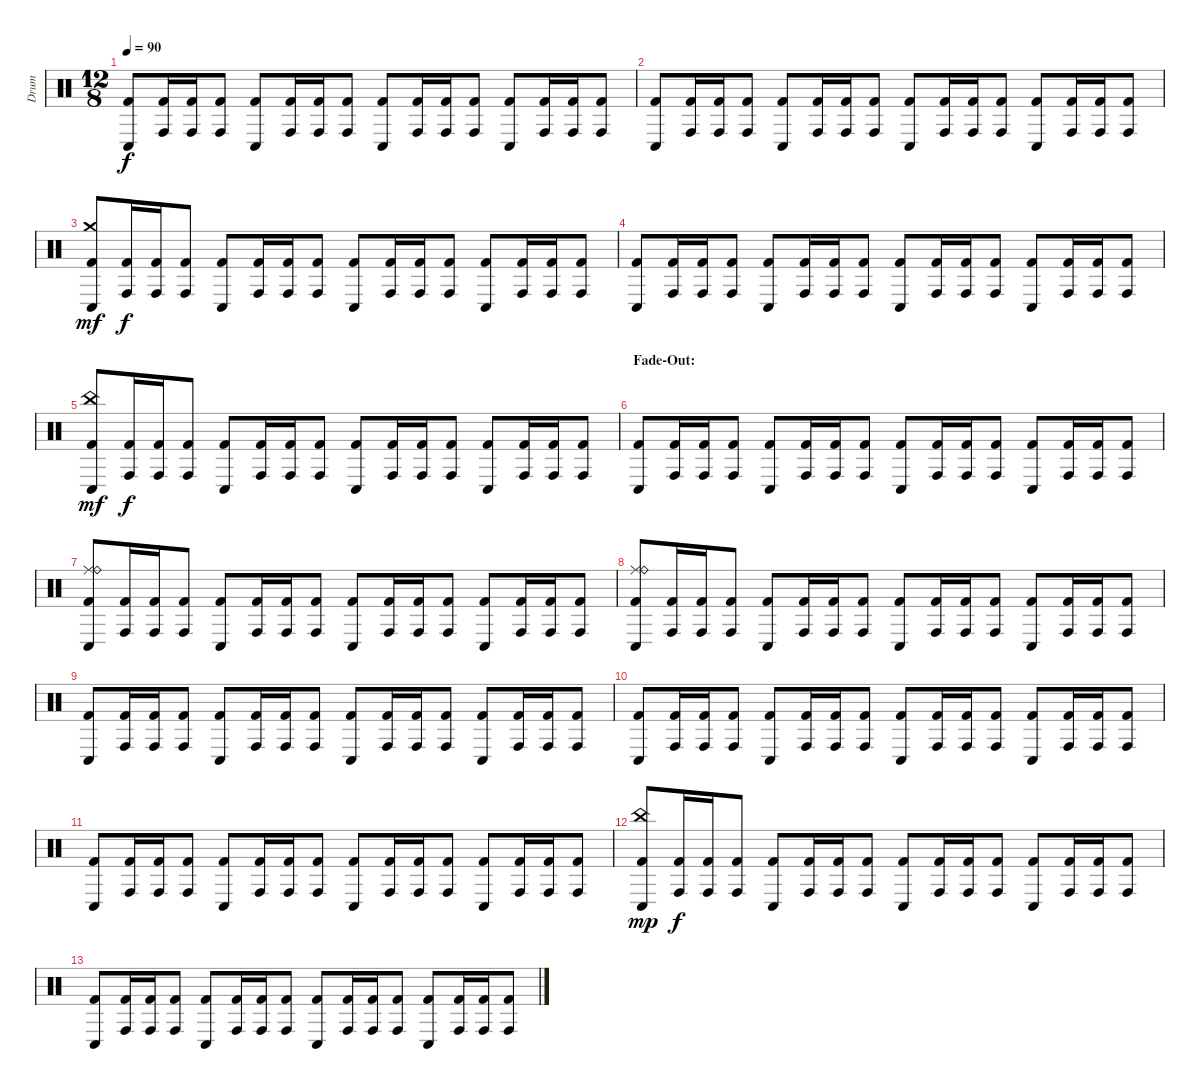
\track ("Drum" "Drum") {instrument percussion}
\staff {score}
\articulation defaults
\ts (12 8)
\tempo 90
\clef neutral
\ks c
("Kick (hit) 2" "Conga low (hit)").8{dy f} ("Kick (hit) 2" "Conga high (hit)").16 ("Kick (hit) 2" "Conga high (hit)").16 ("Kick (hit) 2" "Conga high (hit)").8 ("Kick (hit) 2" "Conga low (hit)").8 ("Kick (hit) 2" "Conga high (hit)").16 ("Kick (hit) 2" "Conga high (hit)").16 ("Kick (hit) 2" "Conga high (hit)").8 ("Kick (hit) 2" "Conga low (hit)").8 ("Kick (hit) 2" "Conga high (hit)").16 ("Kick (hit) 2" "Conga high (hit)").16 ("Kick (hit) 2" "Conga high (hit)").8 ("Kick (hit) 2" "Conga low (hit)").8 ("Kick (hit) 2" "Conga high (hit)").16 ("Kick (hit) 2" "Conga high (hit)").16 ("Kick (hit) 2" "Conga high (hit)").8 |
("Kick (hit) 2" "Conga low (hit)").8 ("Kick (hit) 2" "Conga high (hit)").16 ("Kick (hit) 2" "Conga high (hit)").16 ("Kick (hit) 2" "Conga high (hit)").8 ("Kick (hit) 2" "Conga low (hit)").8 ("Kick (hit) 2" "Conga high (hit)").16 ("Kick (hit) 2" "Conga high (hit)").16 ("Kick (hit) 2" "Conga high (hit)").8 ("Kick (hit) 2" "Conga low (hit)").8 ("Kick (hit) 2" "Conga high (hit)").16 ("Kick (hit) 2" "Conga high (hit)").16 ("Kick (hit) 2" "Conga high (hit)").8 ("Kick (hit) 2" "Conga low (hit)").8 ("Kick (hit) 2" "Conga high (hit)").16 ("Kick (hit) 2" "Conga high (hit)").16 ("Kick (hit) 2" "Conga high (hit)").8 |
("Kick (hit) 2" "Conga low (hit)" "Crash medium (hit)").8{dy mf} ("Kick (hit) 2" "Conga high (hit)").16{dy f} ("Kick (hit) 2" "Conga high (hit)").16 ("Kick (hit) 2" "Conga high (hit)").8 ("Kick (hit) 2" "Conga low (hit)").8 ("Kick (hit) 2" "Conga high (hit)").16 ("Kick (hit) 2" "Conga high (hit)").16 ("Kick (hit) 2" "Conga high (hit)").8 ("Kick (hit) 2" "Conga low (hit)").8 ("Kick (hit) 2" "Conga high (hit)").16 ("Kick (hit) 2" "Conga high (hit)").16 ("Kick (hit) 2" "Conga high (hit)").8 ("Kick (hit) 2" "Conga low (hit)").8 ("Kick (hit) 2" "Conga high (hit)").16 ("Kick (hit) 2" "Conga high (hit)").16 ("Kick (hit) 2" "Conga high (hit)").8 |
("Kick (hit) 2" "Conga low (hit)").8 ("Kick (hit) 2" "Conga high (hit)").16 ("Kick (hit) 2" "Conga high (hit)").16 ("Kick (hit) 2" "Conga high (hit)").8 ("Kick (hit) 2" "Conga low (hit)").8 ("Kick (hit) 2" "Conga high (hit)").16 ("Kick (hit) 2" "Conga high (hit)").16 ("Kick (hit) 2" "Conga high (hit)").8 ("Kick (hit) 2" "Conga low (hit)").8 ("Kick (hit) 2" "Conga high (hit)").16 ("Kick (hit) 2" "Conga high (hit)").16 ("Kick (hit) 2" "Conga high (hit)").8 ("Kick (hit) 2" "Conga low (hit)").8 ("Kick (hit) 2" "Conga high (hit)").16 ("Kick (hit) 2" "Conga high (hit)").16 ("Kick (hit) 2" "Conga high (hit)").8 |
("Kick (hit) 2" "Conga low (hit)" "China (hit)").8{dy mf} ("Kick (hit) 2" "Conga high (hit)").16{dy f} ("Kick (hit) 2" "Conga high (hit)").16 ("Kick (hit) 2" "Conga high (hit)").8 ("Kick (hit) 2" "Conga low (hit)").8 ("Kick (hit) 2" "Conga high (hit)").16 ("Kick (hit) 2" "Conga high (hit)").16 ("Kick (hit) 2" "Conga high (hit)").8 ("Kick (hit) 2" "Conga low (hit)").8 ("Kick (hit) 2" "Conga high (hit)").16 ("Kick (hit) 2" "Conga high (hit)").16 ("Kick (hit) 2" "Conga high (hit)").8 ("Kick (hit) 2" "Conga low (hit)").8 ("Kick (hit) 2" "Conga high (hit)").16 ("Kick (hit) 2" "Conga high (hit)").16 ("Kick (hit) 2" "Conga high (hit)").8 |
\section ("" "Fade-Out:")
("Kick (hit) 2" "Conga low (hit)").8{volume 12} ("Kick (hit) 2" "Conga high (hit)").16 ("Kick (hit) 2" "Conga high (hit)").16 ("Kick (hit) 2" "Conga high (hit)").8 ("Kick (hit) 2" "Conga low (hit)").8 ("Kick (hit) 2" "Conga high (hit)").16 ("Kick (hit) 2" "Conga high (hit)").16 ("Kick (hit) 2" "Conga high (hit)").8 ("Kick (hit) 2" "Conga low (hit)").8{volume 11} ("Kick (hit) 2" "Conga high (hit)").16 ("Kick (hit) 2" "Conga high (hit)").16 ("Kick (hit) 2" "Conga high (hit)").8 ("Kick (hit) 2" "Conga low (hit)").8 ("Kick (hit) 2" "Conga high (hit)").16 ("Kick (hit) 2" "Conga high (hit)").16 ("Kick (hit) 2" "Conga high (hit)").8 |
("Kick (hit) 2" "Conga low (hit)" "Ride (middle)" "Ride (bell)").8{volume 10} ("Kick (hit) 2" "Conga high (hit)").16 ("Kick (hit) 2" "Conga high (hit)").16 ("Kick (hit) 2" "Conga high (hit)").8 ("Kick (hit) 2" "Conga low (hit)").8 ("Kick (hit) 2" "Conga high (hit)").16 ("Kick (hit) 2" "Conga high (hit)").16 ("Kick (hit) 2" "Conga high (hit)").8 ("Kick (hit) 2" "Conga low (hit)").8{volume 9} ("Kick (hit) 2" "Conga high (hit)").16 ("Kick (hit) 2" "Conga high (hit)").16 ("Kick (hit) 2" "Conga high (hit)").8 ("Kick (hit) 2" "Conga low (hit)").8 ("Kick (hit) 2" "Conga high (hit)").16 ("Kick (hit) 2" "Conga high (hit)").16 ("Kick (hit) 2" "Conga high (hit)").8 |
("Kick (hit) 2" "Conga low (hit)" "Ride (middle)" "Ride (bell)").8{volume 8} ("Kick (hit) 2" "Conga high (hit)").16 ("Kick (hit) 2" "Conga high (hit)").16 ("Kick (hit) 2" "Conga high (hit)").8 ("Kick (hit) 2" "Conga low (hit)").8 ("Kick (hit) 2" "Conga high (hit)").16 ("Kick (hit) 2" "Conga high (hit)").16 ("Kick (hit) 2" "Conga high (hit)").8 ("Kick (hit) 2" "Conga low (hit)").8{volume 7} ("Kick (hit) 2" "Conga high (hit)").16 ("Kick (hit) 2" "Conga high (hit)").16 ("Kick (hit) 2" "Conga high (hit)").8 ("Kick (hit) 2" "Conga low (hit)").8 ("Kick (hit) 2" "Conga high (hit)").16 ("Kick (hit) 2" "Conga high (hit)").16 ("Kick (hit) 2" "Conga high (hit)").8 |
("Kick (hit) 2" "Conga low (hit)").8{volume 6} ("Kick (hit) 2" "Conga high (hit)").16 ("Kick (hit) 2" "Conga high (hit)").16 ("Kick (hit) 2" "Conga high (hit)").8 ("Kick (hit) 2" "Conga low (hit)").8 ("Kick (hit) 2" "Conga high (hit)").16 ("Kick (hit) 2" "Conga high (hit)").16 ("Kick (hit) 2" "Conga high (hit)").8 ("Kick (hit) 2" "Conga low (hit)").8{volume 5} ("Kick (hit) 2" "Conga high (hit)").16 ("Kick (hit) 2" "Conga high (hit)").16 ("Kick (hit) 2" "Conga high (hit)").8 ("Kick (hit) 2" "Conga low (hit)").8 ("Kick (hit) 2" "Conga high (hit)").16 ("Kick (hit) 2" "Conga high (hit)").16 ("Kick (hit) 2" "Conga high (hit)").8 |
("Kick (hit) 2" "Conga low (hit)").8{volume 4} ("Kick (hit) 2" "Conga high (hit)").16 ("Kick (hit) 2" "Conga high (hit)").16 ("Kick (hit) 2" "Conga high (hit)").8 ("Kick (hit) 2" "Conga low (hit)").8 ("Kick (hit) 2" "Conga high (hit)").16 ("Kick (hit) 2" "Conga high (hit)").16 ("Kick (hit) 2" "Conga high (hit)").8 ("Kick (hit) 2" "Conga low (hit)").8{volume 3} ("Kick (hit) 2" "Conga high (hit)").16 ("Kick (hit) 2" "Conga high (hit)").16 ("Kick (hit) 2" "Conga high (hit)").8 ("Kick (hit) 2" "Conga low (hit)").8 ("Kick (hit) 2" "Conga high (hit)").16 ("Kick (hit) 2" "Conga high (hit)").16 ("Kick (hit) 2" "Conga high (hit)").8 |
("Kick (hit) 2" "Conga low (hit)").8{volume 2} ("Kick (hit) 2" "Conga high (hit)").16 ("Kick (hit) 2" "Conga high (hit)").16 ("Kick (hit) 2" "Conga high (hit)").8 ("Kick (hit) 2" "Conga low (hit)").8 ("Kick (hit) 2" "Conga high (hit)").16 ("Kick (hit) 2" "Conga high (hit)").16 ("Kick (hit) 2" "Conga high (hit)").8 ("Kick (hit) 2" "Conga low (hit)").8{volume 1} ("Kick (hit) 2" "Conga high (hit)").16 ("Kick (hit) 2" "Conga high (hit)").16 ("Kick (hit) 2" "Conga high (hit)").8 ("Kick (hit) 2" "Conga low (hit)").8 ("Kick (hit) 2" "Conga high (hit)").16 ("Kick (hit) 2" "Conga high (hit)").16 ("Kick (hit) 2" "Conga high (hit)").8 |
("Kick (hit) 2" "Conga low (hit)" "China (hit)").8{dy mp volume 0} ("Kick (hit) 2" "Conga high (hit)").16{dy f} ("Kick (hit) 2" "Conga high (hit)").16 ("Kick (hit) 2" "Conga high (hit)").8 ("Kick (hit) 2" "Conga low (hit)").8 ("Kick (hit) 2" "Conga high (hit)").16 ("Kick (hit) 2" "Conga high (hit)").16 ("Kick (hit) 2" "Conga high (hit)").8 ("Kick (hit) 2" "Conga low (hit)").8 ("Kick (hit) 2" "Conga high (hit)").16 ("Kick (hit) 2" "Conga high (hit)").16 ("Kick (hit) 2" "Conga high (hit)").8 ("Kick (hit) 2" "Conga low (hit)").8 ("Kick (hit) 2" "Conga high (hit)").16 ("Kick (hit) 2" "Conga high (hit)").16 ("Kick (hit) 2" "Conga high (hit)").8 |
("Kick (hit) 2" "Conga low (hit)").8 ("Kick (hit) 2" "Conga high (hit)").16 ("Kick (hit) 2" "Conga high (hit)").16 ("Kick (hit) 2" "Conga high (hit)").8 ("Kick (hit) 2" "Conga low (hit)").8 ("Kick (hit) 2" "Conga high (hit)").16 ("Kick (hit) 2" "Conga high (hit)").16 ("Kick (hit) 2" "Conga high (hit)").8 ("Kick (hit) 2" "Conga low (hit)").8 ("Kick (hit) 2" "Conga high (hit)").16 ("Kick (hit) 2" "Conga high (hit)").16 ("Kick (hit) 2" "Conga high (hit)").8 ("Kick (hit) 2" "Conga low (hit)").8 ("Kick (hit) 2" "Conga high (hit)").16 ("Kick (hit) 2" "Conga high (hit)").16 ("Kick (hit) 2" "Conga high (hit)").8
